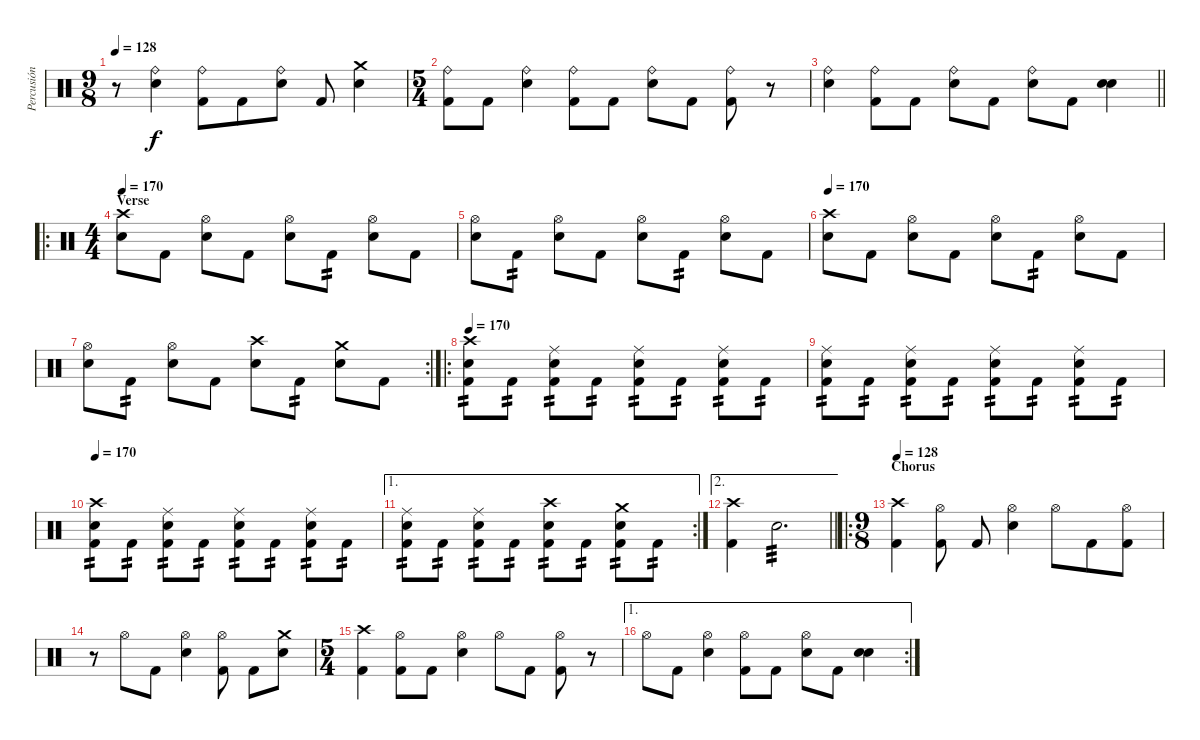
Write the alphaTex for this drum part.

\track ("Percusión" "Percusión") {instrument percussion}
\staff
\articulation defaults
\ts (9 8)
\tempo 128
\clef neutral
\ks c
r.8{dy f} ("Electric Snare (hit)" "Ride (bell)").4 ("Kick (hit) 2" "Ride (bell)").8 "Kick (hit) 2".8 ("Electric Snare (hit)" "Ride (bell)").8 "Kick (hit) 2".8 ("Electric Snare (hit)" "Crash medium (hit)").4 |
\ts (5 4)
("Kick (hit) 2" "Ride (bell)").8 "Kick (hit) 2".8 ("Electric Snare (hit)" "Ride (bell)").4 ("Kick (hit) 2" "Ride (bell)").8 "Kick (hit) 2".8 ("Electric Snare (hit)" "Ride (bell)").8 "Kick (hit) 2".8 ("Kick (hit) 2" "Ride (bell)").8 r.8 |
\barLineRight lightlight
("Electric Snare (hit)" "Ride (bell)").4 ("Kick (hit) 2" "Ride (bell)").8 "Kick (hit) 2".8 ("Electric Snare (hit)" "Ride (bell)").8 "Kick (hit) 2".8 ("Electric Snare (hit)" "Ride (bell)").8 "Kick (hit) 2".8 ("Electric Snare (hit)" "Snare (hit) 2").4 |
\ro
\ts (4 4)
\section ("" "Verse")
\tempo 170
("Electric Snare (hit)" "Crash high (hit)").8 "Kick (hit) 2".8 ("Electric Snare (hit)" "Hi-Hat (open)").8 "Kick (hit) 2".8 ("Electric Snare (hit)" "Hi-Hat (open)").8 "Kick (hit) 2".8{tp 2} ("Electric Snare (hit)" "Hi-Hat (open)").8 "Kick (hit) 2".8 |
("Electric Snare (hit)" "Hi-Hat (open)").8 "Kick (hit) 2".8{tp 2} ("Electric Snare (hit)" "Hi-Hat (open)").8 "Kick (hit) 2".8 ("Electric Snare (hit)" "Hi-Hat (open)").8 "Kick (hit) 2".8{tp 2} ("Electric Snare (hit)" "Hi-Hat (open)").8 "Kick (hit) 2".8 |
\tempo 170
("Electric Snare (hit)" "Crash high (hit)").8 "Kick (hit) 2".8 ("Electric Snare (hit)" "Hi-Hat (open)").8 "Kick (hit) 2".8 ("Electric Snare (hit)" "Hi-Hat (open)").8 "Kick (hit) 2".8{tp 2} ("Electric Snare (hit)" "Hi-Hat (open)").8 "Kick (hit) 2".8 |
\rc 2
("Electric Snare (hit)" "Hi-Hat (open)").8 "Kick (hit) 2".8{tp 2} ("Electric Snare (hit)" "Hi-Hat (open)").8 "Kick (hit) 2".8 ("Electric Snare (hit)" "Crash high (hit)").8 "Kick (hit) 2".8{tp 2} ("Electric Snare (hit)" "Crash medium (hit)").8 "Kick (hit) 2".8 |
\ro
\tempo 170
("Kick (hit) 2" "Electric Snare (hit)" "Crash high (hit)").8{tp 2} "Kick (hit) 2".8{tp 2} ("Kick (hit) 2" "Electric Snare (hit)" "Ride (middle)").8{tp 2} "Kick (hit) 2".8{tp 2} ("Kick (hit) 2" "Electric Snare (hit)" "Ride (middle)").8{tp 2} "Kick (hit) 2".8{tp 2} ("Kick (hit) 2" "Electric Snare (hit)" "Ride (middle)").8{tp 2} "Kick (hit) 2".8{tp 2} |
("Kick (hit) 2" "Electric Snare (hit)" "Ride (middle)").8{tp 2} "Kick (hit) 2".8{tp 2} ("Kick (hit) 2" "Electric Snare (hit)" "Ride (middle)").8{tp 2} "Kick (hit) 2".8{tp 2} ("Kick (hit) 2" "Electric Snare (hit)" "Ride (middle)").8{tp 2} "Kick (hit) 2".8{tp 2} ("Kick (hit) 2" "Electric Snare (hit)" "Ride (middle)").8{tp 2} "Kick (hit) 2".8{tp 2} |
\tempo 170
("Kick (hit) 2" "Electric Snare (hit)" "Crash high (hit)").8{tp 2} "Kick (hit) 2".8{tp 2} ("Kick (hit) 2" "Electric Snare (hit)" "Ride (middle)").8{tp 2} "Kick (hit) 2".8{tp 2} ("Kick (hit) 2" "Electric Snare (hit)" "Ride (middle)").8{tp 2} "Kick (hit) 2".8{tp 2} ("Kick (hit) 2" "Electric Snare (hit)" "Ride (middle)").8{tp 2} "Kick (hit) 2".8{tp 2} |
\ae 1
\rc 2
("Kick (hit) 2" "Electric Snare (hit)" "Ride (middle)").8{tp 2} "Kick (hit) 2".8{tp 2} ("Kick (hit) 2" "Electric Snare (hit)" "Ride (middle)").8{tp 2} "Kick (hit) 2".8{tp 2} ("Kick (hit) 2" "Electric Snare (hit)" "Crash high (hit)").8{tp 2} "Kick (hit) 2".8{tp 2} ("Kick (hit) 2" "Electric Snare (hit)" "Crash medium (hit)").8{tp 2} "Kick (hit) 2".8{tp 2} |
\ae 2
\barLineRight lightlight
("Kick (hit) 2" "Crash high (hit)").4 "Electric Snare (hit)".2{d tp 3} |
\ro
\ts (9 8)
\section ("" "Chorus")
\tempo 128
("Kick (hit) 2" "Crash high (hit)").4 ("Kick (hit) 2" "Hi-Hat (open)").8 "Kick (hit) 2".8 ("Electric Snare (hit)" "Hi-Hat (open)").4 "Hi-Hat (open)".8 "Kick (hit) 2".8 ("Kick (hit) 2" "Hi-Hat (open)").8 |
r.8 "Hi-Hat (open)".8 "Kick (hit) 2".8 ("Electric Snare (hit)" "Hi-Hat (open)").4 ("Kick (hit) 2" "Hi-Hat (open)").8 "Kick (hit) 2".8 ("Electric Snare (hit)" "Crash medium (hit)").8 |
\ts (5 4)
("Kick (hit) 2" "Crash high (hit)").4 ("Kick (hit) 2" "Hi-Hat (open)").8 "Kick (hit) 2".8 ("Electric Snare (hit)" "Hi-Hat (open)").4 "Hi-Hat (open)".8 "Kick (hit) 2".8 ("Kick (hit) 2" "Hi-Hat (open)").8 r.8 |
\ae 1
\rc 2 "Hi-Hat (open)".8 "Kick (hit) 2".8
("Electric Snare (hit)" "Hi-Hat (open)").4 ("Kick (hit) 2" "Hi-Hat (open)").8 "Kick (hit) 2".8 ("Electric Snare (hit)" "Hi-Hat (open)").8 "Kick (hit) 2".8 ("Electric Snare (hit)" "Snare (hit) 2").4
